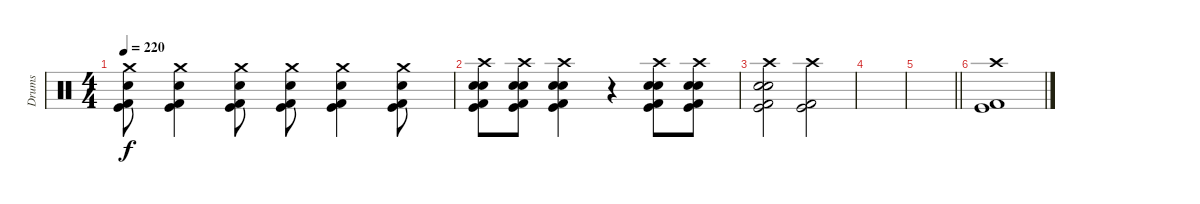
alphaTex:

\track ("Drums" "Drums") {instrument percussion}
\staff {score}
\articulation defaults
\ts (4 4)
\tempo 220
\clef neutral
\ks c
("Crash medium (hit)" "Electric Snare (hit)" "Kick (hit) 2" "Kick (hit)").8{dy f} ("Crash medium (hit)" "Electric Snare (hit)" "Kick (hit) 2" "Kick (hit)").4 ("Crash medium (hit)" "Electric Snare (hit)" "Kick (hit) 2" "Kick (hit)").8 ("Crash medium (hit)" "Electric Snare (hit)" "Kick (hit) 2" "Kick (hit)").8 ("Crash medium (hit)" "Electric Snare (hit)" "Kick (hit) 2" "Kick (hit)").4 ("Crash medium (hit)" "Electric Snare (hit)" "Kick (hit) 2" "Kick (hit)").8 |
("Crash high (hit)" "Snare (hit) 2" "Electric Snare (hit)" "Kick (hit) 2" "Kick (hit)").8 ("Crash high (hit)" "Snare (hit) 2" "Electric Snare (hit)" "Kick (hit) 2" "Kick (hit)").8 ("Crash high (hit)" "Snare (hit) 2" "Electric Snare (hit)" "Kick (hit) 2" "Kick (hit)").4 r.4 ("Crash high (hit)" "Snare (hit) 2" "Electric Snare (hit)" "Kick (hit) 2" "Kick (hit)").8 ("Crash high (hit)" "Snare (hit) 2" "Electric Snare (hit)" "Kick (hit) 2" "Kick (hit)").8 |
("Crash high (hit)" "Snare (hit) 2" "Electric Snare (hit)" "Kick (hit) 2" "Kick (hit)").2 ("Crash high (hit)" "Kick (hit) 2" "Kick (hit)").2 |
|
\barLineRight lightlight
|
("Crash high (hit)" "Kick (hit) 2" "Kick (hit)").1
